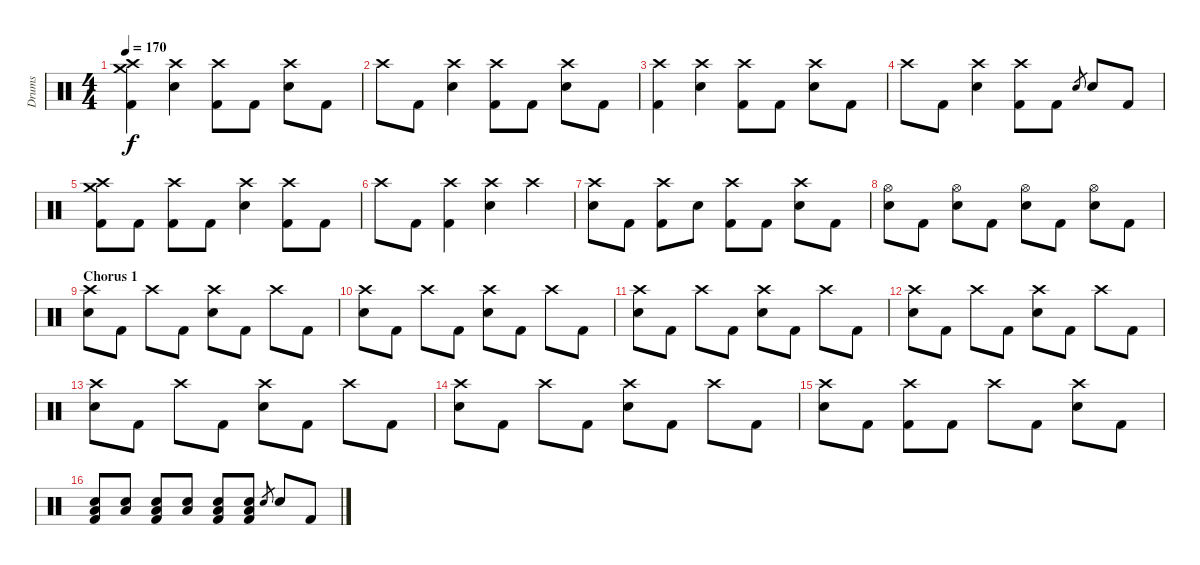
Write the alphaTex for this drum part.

\track ("Drums" "Drums") {instrument percussion}
\staff {score}
\articulation defaults
\ts (4 4)
\tempo 170
\clef neutral
\ks c
("Crash medium (hit)" "Crash high (hit)" "Kick (hit) 2").4{dy f} ("Crash high (hit)" "Snare (hit) 2").4 ("Crash high (hit)" "Kick (hit) 2").8 "Kick (hit) 2".8 ("Crash high (hit)" "Snare (hit) 2").8 "Kick (hit) 2".8 |
"Crash high (hit)".8 "Kick (hit) 2".8 ("Crash high (hit)" "Snare (hit) 2").4 ("Crash high (hit)" "Kick (hit) 2").8 "Kick (hit) 2".8 ("Crash high (hit)" "Snare (hit) 2").8 "Kick (hit) 2".8 |
("Crash high (hit)" "Kick (hit) 2").4 ("Crash high (hit)" "Snare (hit) 2").4 ("Crash high (hit)" "Kick (hit) 2").8 "Kick (hit) 2".8 ("Crash high (hit)" "Snare (hit) 2").8 "Kick (hit) 2".8 |
"Crash high (hit)".8 "Kick (hit) 2".8 ("Crash high (hit)" "Snare (hit) 2").4 ("Crash high (hit)" "Kick (hit) 2").8 "Kick (hit) 2".8 "Snare (hit) 2".8{gr} "Snare (hit) 2".8 "Kick (hit) 2".8 |
("Crash medium (hit)" "Crash high (hit)" "Kick (hit) 2").8 "Kick (hit) 2".8 ("Crash high (hit)" "Kick (hit) 2").8 "Kick (hit) 2".8 ("Crash high (hit)" "Snare (hit) 2").4 ("Crash high (hit)" "Kick (hit) 2").8 "Kick (hit) 2".8 |
"Crash high (hit)".8 "Kick (hit) 2".8 ("Crash high (hit)" "Kick (hit) 2").4 ("Crash high (hit)" "Snare (hit) 2").4 "Crash high (hit)".4 |
("Crash high (hit)" "Snare (hit) 2").8 "Kick (hit) 2".8 ("Crash high (hit)" "Kick (hit) 2").8 "Snare (hit) 2".8 ("Crash high (hit)" "Kick (hit) 2").8 "Kick (hit) 2".8 ("Crash high (hit)" "Snare (hit) 2").8 "Kick (hit) 2".8 |
("Hi-Hat (open)" "Snare (hit) 2").8 "Kick (hit) 2".8 ("Hi-Hat (open)" "Snare (hit) 2").8 "Kick (hit) 2".8 ("Hi-Hat (open)" "Snare (hit) 2").8 "Kick (hit) 2".8 ("Hi-Hat (open)" "Snare (hit) 2").8 "Kick (hit) 2".8 |
\section ("" "Chorus 1")
("Crash high (hit)" "Snare (hit) 2").8 "Kick (hit) 2".8 "Crash high (hit)".8 "Kick (hit) 2".8 ("Crash high (hit)" "Snare (hit) 2").8 "Kick (hit) 2".8 "Crash high (hit)".8 "Kick (hit) 2".8 |
("Crash high (hit)" "Snare (hit) 2").8 "Kick (hit) 2".8 "Crash high (hit)".8 "Kick (hit) 2".8 ("Crash high (hit)" "Snare (hit) 2").8 "Kick (hit) 2".8 "Crash high (hit)".8 "Kick (hit) 2".8 |
("Crash high (hit)" "Snare (hit) 2").8 "Kick (hit) 2".8 "Crash high (hit)".8 "Kick (hit) 2".8 ("Crash high (hit)" "Snare (hit) 2").8 "Kick (hit) 2".8 "Crash high (hit)".8 "Kick (hit) 2".8 |
("Crash high (hit)" "Snare (hit) 2").8 "Kick (hit) 2".8 "Crash high (hit)".8 "Kick (hit) 2".8 ("Crash high (hit)" "Snare (hit) 2").8 "Kick (hit) 2".8 "Crash high (hit)".8 "Kick (hit) 2".8 |
("Crash high (hit)" "Snare (hit) 2").8 "Kick (hit) 2".8 "Crash high (hit)".8 "Kick (hit) 2".8 ("Crash high (hit)" "Snare (hit) 2").8 "Kick (hit) 2".8 "Crash high (hit)".8 "Kick (hit) 2".8 |
("Crash high (hit)" "Snare (hit) 2").8 "Kick (hit) 2".8 "Crash high (hit)".8 "Kick (hit) 2".8 ("Crash high (hit)" "Snare (hit) 2").8 "Kick (hit) 2".8 "Crash high (hit)".8 "Kick (hit) 2".8 |
("Crash high (hit)" "Snare (hit) 2").8 "Kick (hit) 2".8 ("Crash high (hit)" "Kick (hit) 2").8 "Kick (hit) 2".8 "Crash high (hit)".8 "Kick (hit) 2".8 ("Crash high (hit)" "Snare (hit) 2").8 "Kick (hit) 2".8 |
("Low Floor Tom (hit)" "Snare (hit) 2" "Kick (hit) 2").8 ("Low Floor Tom (hit)" "Snare (hit) 2").8 ("Low Floor Tom (hit)" "Snare (hit) 2" "Kick (hit) 2").8 ("Low Floor Tom (hit)" "Snare (hit) 2").8 ("Low Floor Tom (hit)" "Snare (hit) 2" "Kick (hit) 2").8 ("Low Floor Tom (hit)" "Snare (hit) 2" "Kick (hit) 2").8 "Snare (hit) 2".8{gr} "Snare (hit) 2".8 "Kick (hit) 2".8
